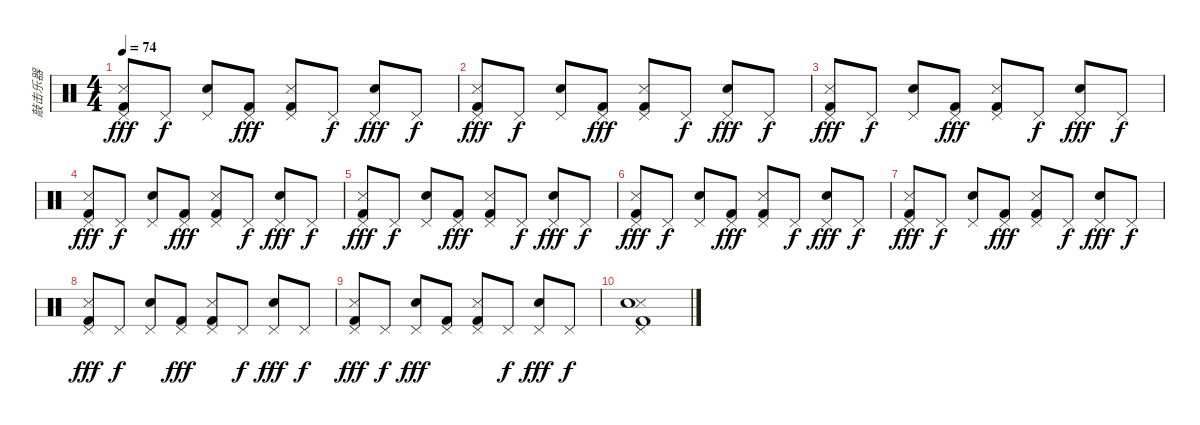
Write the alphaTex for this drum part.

\track ("敲击乐器" "敲击乐器") {instrument percussion}
\staff {score}
\articulation defaults
\ts (4 4)
\tempo 74
\clef neutral
\ks c
("Snare (side stick) 3" "Pedal Hi-Hat (hit)" "Kick (hit) 2").8{dy fff} "Pedal Hi-Hat (hit)".8{dy f} ("Hand Clap (hit)" "Pedal Hi-Hat (hit)").8 ("Pedal Hi-Hat (hit)" "Kick (hit) 2").8{dy fff} ("Snare (side stick) 3" "Pedal Hi-Hat (hit)" "Kick (hit) 2").8 "Pedal Hi-Hat (hit)".8{dy f} ("Hand Clap (hit)" "Pedal Hi-Hat (hit)").8{dy fff} "Pedal Hi-Hat (hit)".8{dy f} |
("Snare (side stick) 3" "Pedal Hi-Hat (hit)" "Kick (hit) 2").8{dy fff} "Pedal Hi-Hat (hit)".8{dy f} ("Hand Clap (hit)" "Pedal Hi-Hat (hit)").8 ("Pedal Hi-Hat (hit)" "Kick (hit) 2").8{dy fff} ("Snare (side stick) 3" "Pedal Hi-Hat (hit)" "Kick (hit) 2").8 "Pedal Hi-Hat (hit)".8{dy f} ("Hand Clap (hit)" "Pedal Hi-Hat (hit)").8{dy fff} "Pedal Hi-Hat (hit)".8{dy f} |
("Snare (side stick) 3" "Pedal Hi-Hat (hit)" "Kick (hit) 2").8{dy fff} "Pedal Hi-Hat (hit)".8{dy f} ("Hand Clap (hit)" "Pedal Hi-Hat (hit)").8 ("Pedal Hi-Hat (hit)" "Kick (hit) 2").8{dy fff} ("Snare (side stick) 3" "Pedal Hi-Hat (hit)" "Kick (hit) 2").8 "Pedal Hi-Hat (hit)".8{dy f} ("Hand Clap (hit)" "Pedal Hi-Hat (hit)").8{dy fff} "Pedal Hi-Hat (hit)".8{dy f} |
("Snare (side stick) 3" "Pedal Hi-Hat (hit)" "Kick (hit) 2").8{dy fff} "Pedal Hi-Hat (hit)".8{dy f} ("Hand Clap (hit)" "Pedal Hi-Hat (hit)").8 ("Pedal Hi-Hat (hit)" "Kick (hit) 2").8{dy fff} ("Snare (side stick) 3" "Pedal Hi-Hat (hit)" "Kick (hit) 2").8 "Pedal Hi-Hat (hit)".8{dy f} ("Hand Clap (hit)" "Pedal Hi-Hat (hit)").8{dy fff} "Pedal Hi-Hat (hit)".8{dy f} |
("Snare (side stick) 3" "Pedal Hi-Hat (hit)" "Kick (hit) 2").8{dy fff} "Pedal Hi-Hat (hit)".8{dy f} ("Hand Clap (hit)" "Pedal Hi-Hat (hit)").8 ("Pedal Hi-Hat (hit)" "Kick (hit) 2").8{dy fff} ("Snare (side stick) 3" "Pedal Hi-Hat (hit)" "Kick (hit) 2").8 "Pedal Hi-Hat (hit)".8{dy f} ("Hand Clap (hit)" "Pedal Hi-Hat (hit)").8{dy fff} "Pedal Hi-Hat (hit)".8{dy f} |
("Snare (side stick) 3" "Pedal Hi-Hat (hit)" "Kick (hit) 2").8{dy fff} "Pedal Hi-Hat (hit)".8{dy f} ("Hand Clap (hit)" "Pedal Hi-Hat (hit)").8 ("Pedal Hi-Hat (hit)" "Kick (hit) 2").8{dy fff} ("Snare (side stick) 3" "Pedal Hi-Hat (hit)" "Kick (hit) 2").8 "Pedal Hi-Hat (hit)".8{dy f} ("Hand Clap (hit)" "Pedal Hi-Hat (hit)").8{dy fff} "Pedal Hi-Hat (hit)".8{dy f} |
("Snare (side stick) 3" "Pedal Hi-Hat (hit)" "Kick (hit) 2").8{dy fff} "Pedal Hi-Hat (hit)".8{dy f} ("Hand Clap (hit)" "Pedal Hi-Hat (hit)").8 ("Pedal Hi-Hat (hit)" "Kick (hit) 2").8{dy fff} ("Snare (side stick) 3" "Pedal Hi-Hat (hit)" "Kick (hit) 2").8 "Pedal Hi-Hat (hit)".8{dy f} ("Hand Clap (hit)" "Pedal Hi-Hat (hit)").8{dy fff} "Pedal Hi-Hat (hit)".8{dy f} |
("Snare (side stick) 3" "Pedal Hi-Hat (hit)" "Kick (hit) 2").8{dy fff} "Pedal Hi-Hat (hit)".8{dy f} ("Hand Clap (hit)" "Pedal Hi-Hat (hit)").8 ("Pedal Hi-Hat (hit)" "Kick (hit) 2").8{dy fff} ("Snare (side stick) 3" "Pedal Hi-Hat (hit)" "Kick (hit) 2").8 "Pedal Hi-Hat (hit)".8{dy f} ("Hand Clap (hit)" "Pedal Hi-Hat (hit)").8{dy fff} "Pedal Hi-Hat (hit)".8{dy f} |
("Snare (side stick) 3" "Pedal Hi-Hat (hit)" "Kick (hit) 2").8{dy fff} "Pedal Hi-Hat (hit)".8{dy f} ("Hand Clap (hit)" "Pedal Hi-Hat (hit)").8{dy fff} ("Pedal Hi-Hat (hit)" "Kick (hit) 2").8 ("Snare (side stick) 3" "Pedal Hi-Hat (hit)" "Kick (hit) 2").8 "Pedal Hi-Hat (hit)".8{dy f} ("Hand Clap (hit)" "Pedal Hi-Hat (hit)").8{dy fff} "Pedal Hi-Hat (hit)".8{dy f} |
("Snare (side stick) 3" "Hand Clap (hit)" "Pedal Hi-Hat (hit)" "Kick (hit) 2").1
